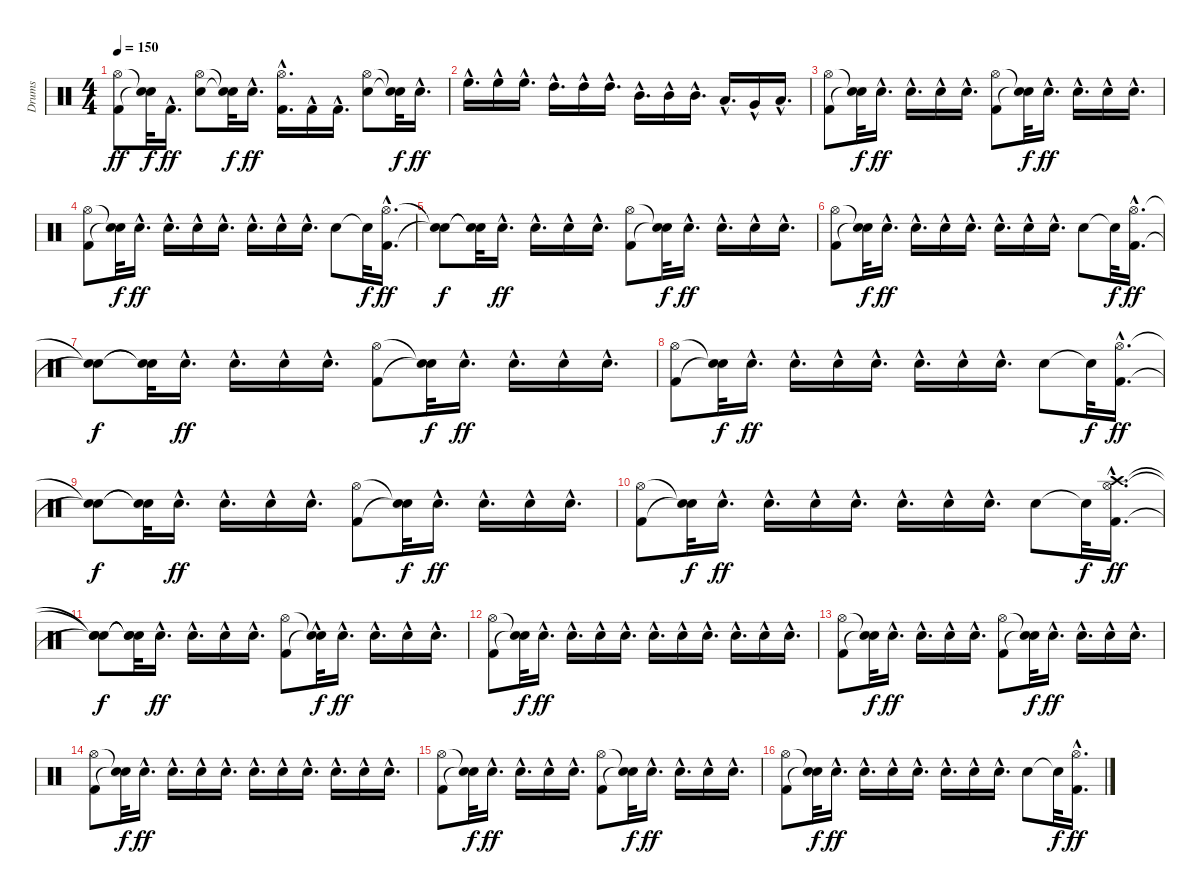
\track ("Drums" "Drums") {instrument percussion}
\staff {score}
\articulation defaults
\ts (4 4)
\tempo 150
\clef neutral
\ks c
("Kick (hit) 2" "Hi-Hat (open)").8{dy ff} ("Snare (hit)"{t} "Snare (hit)"{t}).32{dy f} "Kick (hit) 2"{hac}.16{d dy ff} ("Snare (hit) 2" "Hi-Hat (open)").8 ("Snare (hit)"{t} "Snare (hit)"{t}).32{dy f} "Snare (hit) 2"{hac}.16{d dy ff} ("Kick (hit) 2"{hac} "Hi-Hat (open)"{hac}).16{d} "Kick (hit) 2"{hac}.16 "Kick (hit) 2"{hac}.16{d} ("Snare (hit) 2" "Hi-Hat (open)").8 ("Snare (hit)"{t} "Snare (hit)"{t}).32{dy f} "Snare (hit) 2"{hac}.16{d dy ff} |
"High Floor Tom (hit)"{hac}.16{d} "High Floor Tom (hit)"{hac}.16 "High Floor Tom (hit)"{hac}.16{d} "High Tom (hit)"{hac}.16{d} "High Tom (hit)"{hac}.16 "High Tom (hit)"{hac}.16{d} "Mid Tom (hit)"{hac}.16{d} "Mid Tom (hit)"{hac}.16 "Mid Tom (hit)"{hac}.16{d} "Low Tom (hit)"{hac}.16{d} "Very Low Tom (hit)"{hac}.16 "Low Floor Tom (hit)"{hac}.16{d} |
("Kick (hit) 2" "Hi-Hat (open)").8 ("Snare (hit)"{t} "Snare (hit)"{t}).32{dy f} "Snare (hit) 2"{hac}.16{d dy ff} "Snare (hit) 2"{hac}.16{d} "Snare (hit) 2"{hac}.16 "Snare (hit) 2"{hac}.16{d} ("Kick (hit) 2" "Hi-Hat (open)").8 ("Snare (hit)"{t} "Snare (hit)"{t}).32{dy f} "Snare (hit) 2"{hac}.16{d dy ff} "Snare (hit) 2"{hac}.16{d} "Snare (hit) 2"{hac}.16 "Snare (hit) 2"{hac}.16{d} |
("Kick (hit) 2" "Hi-Hat (open)").8 ("Snare (hit)"{t} "Snare (hit)"{t}).32{dy f} "Snare (hit) 2"{hac}.16{d dy ff} "Snare (hit) 2"{hac}.16{d} "Snare (hit) 2"{hac}.16 "Snare (hit) 2"{hac}.16{d} "Snare (hit) 2"{hac}.16{d} "Snare (hit) 2"{hac}.16 "Snare (hit) 2"{hac}.16{d} "Snare (hit) 2".8 "Snare (hit)"{t}.32{dy f} ("Kick (hit) 2"{hac} "Hi-Hat (open)"{hac}).16{d dy ff} |
("Snare (hit)"{t} "Snare (hit)"{t}).8{dy f} ("Snare (hit)"{t} "Snare (hit)"{t}).32 "Snare (hit) 2"{hac}.16{d dy ff} "Snare (hit) 2"{hac}.16{d} "Snare (hit) 2"{hac}.16 "Snare (hit) 2"{hac}.16{d} ("Kick (hit) 2" "Hi-Hat (open)").8 ("Snare (hit)"{t} "Snare (hit)"{t}).32{dy f} "Snare (hit) 2"{hac}.16{d dy ff} "Snare (hit) 2"{hac}.16{d} "Snare (hit) 2"{hac}.16 "Snare (hit) 2"{hac}.16{d} |
("Kick (hit) 2" "Hi-Hat (open)").8 ("Snare (hit)"{t} "Snare (hit)"{t}).32{dy f} "Snare (hit) 2"{hac}.16{d dy ff} "Snare (hit) 2"{hac}.16{d} "Snare (hit) 2"{hac}.16 "Snare (hit) 2"{hac}.16{d} "Snare (hit) 2"{hac}.16{d} "Snare (hit) 2"{hac}.16 "Snare (hit) 2"{hac}.16{d} "Snare (hit) 2".8 "Snare (hit)"{t}.32{dy f} ("Kick (hit) 2"{hac} "Hi-Hat (open)"{hac}).16{d dy ff} |
("Snare (hit)"{t} "Snare (hit)"{t}).8{dy f} ("Snare (hit)"{t} "Snare (hit)"{t}).32 "Snare (hit) 2"{hac}.16{d dy ff} "Snare (hit) 2"{hac}.16{d} "Snare (hit) 2"{hac}.16 "Snare (hit) 2"{hac}.16{d} ("Kick (hit) 2" "Hi-Hat (open)").8 ("Snare (hit)"{t} "Snare (hit)"{t}).32{dy f} "Snare (hit) 2"{hac}.16{d dy ff} "Snare (hit) 2"{hac}.16{d} "Snare (hit) 2"{hac}.16 "Snare (hit) 2"{hac}.16{d} |
("Kick (hit) 2" "Hi-Hat (open)").8 ("Snare (hit)"{t} "Snare (hit)"{t}).32{dy f} "Snare (hit) 2"{hac}.16{d dy ff} "Snare (hit) 2"{hac}.16{d} "Snare (hit) 2"{hac}.16 "Snare (hit) 2"{hac}.16{d} "Snare (hit) 2"{hac}.16{d} "Snare (hit) 2"{hac}.16 "Snare (hit) 2"{hac}.16{d} "Snare (hit) 2".8 "Snare (hit)"{t}.32{dy f} ("Kick (hit) 2"{hac} "Hi-Hat (open)"{hac}).16{d dy ff} |
("Snare (hit)"{t} "Snare (hit)"{t}).8{dy f} ("Snare (hit)"{t} "Snare (hit)"{t}).32 "Snare (hit) 2"{hac}.16{d dy ff} "Snare (hit) 2"{hac}.16{d} "Snare (hit) 2"{hac}.16 "Snare (hit) 2"{hac}.16{d} ("Kick (hit) 2" "Hi-Hat (open)").8 ("Snare (hit)"{t} "Snare (hit)"{t}).32{dy f} "Snare (hit) 2"{hac}.16{d dy ff} "Snare (hit) 2"{hac}.16{d} "Snare (hit) 2"{hac}.16 "Snare (hit) 2"{hac}.16{d} |
("Kick (hit) 2" "Hi-Hat (open)").8 ("Snare (hit)"{t} "Snare (hit)"{t}).32{dy f} "Snare (hit) 2"{hac}.16{d dy ff} "Snare (hit) 2"{hac}.16{d} "Snare (hit) 2"{hac}.16 "Snare (hit) 2"{hac}.16{d} "Snare (hit) 2"{hac}.16{d} "Snare (hit) 2"{hac}.16 "Snare (hit) 2"{hac}.16{d} "Snare (hit) 2".8 "Snare (hit)"{t}.32{dy f} ("Kick (hit) 2"{hac} "Hi-Hat (open)"{hac} "Crash high (hit)"{hac}).16{d dy ff} |
("Snare (hit)"{t} "Snare (hit)"{t} "Snare (hit)"{t}).8{dy f} ("Snare (hit)"{t} "Snare (hit)"{t} "Snare (hit)"{t}).32 "Snare (hit) 2"{hac}.16{d dy ff} "Snare (hit) 2"{hac}.16{d} "Snare (hit) 2"{hac}.16 "Snare (hit) 2"{hac}.16{d} ("Kick (hit) 2" "Hi-Hat (open)").8 ("Snare (hit)"{hac t} "Snare (hit)"{hac t}).32{dy f} "Snare (hit) 2"{hac}.16{d dy ff} "Snare (hit) 2"{hac}.16{d} "Snare (hit) 2"{hac}.16 "Snare (hit) 2"{hac}.16{d} |
("Kick (hit) 2" "Hi-Hat (open)").8 ("Snare (hit)"{t} "Snare (hit)"{t}).32{dy f} "Snare (hit) 2"{hac}.16{d dy ff} "Snare (hit) 2"{hac}.16{d} "Snare (hit) 2"{hac}.16 "Snare (hit) 2"{hac}.16{d} "Snare (hit) 2"{hac}.16{d} "Snare (hit) 2"{hac}.16 "Snare (hit) 2"{hac}.16{d} "Snare (hit) 2"{hac}.16{d} "Snare (hit) 2"{hac}.16 "Snare (hit) 2"{hac}.16{d} |
("Kick (hit) 2" "Hi-Hat (open)").8 ("Snare (hit)"{t} "Snare (hit)"{t}).32{dy f} "Snare (hit) 2"{hac}.16{d dy ff} "Snare (hit) 2"{hac}.16{d} "Snare (hit) 2"{hac}.16 "Snare (hit) 2"{hac}.16{d} ("Kick (hit) 2" "Hi-Hat (open)").8 ("Snare (hit)"{t} "Snare (hit)"{t}).32{dy f} "Snare (hit) 2"{hac}.16{d dy ff} "Snare (hit) 2"{hac}.16{d} "Snare (hit) 2"{hac}.16 "Snare (hit) 2"{hac}.16{d} |
("Kick (hit) 2" "Hi-Hat (open)").8 ("Snare (hit)"{t} "Snare (hit)"{t}).32{dy f} "Snare (hit) 2"{hac}.16{d dy ff} "Snare (hit) 2"{hac}.16{d} "Snare (hit) 2"{hac}.16 "Snare (hit) 2"{hac}.16{d} "Snare (hit) 2"{hac}.16{d} "Snare (hit) 2"{hac}.16 "Snare (hit) 2"{hac}.16{d} "Snare (hit) 2"{hac}.16{d} "Snare (hit) 2"{hac}.16 "Snare (hit) 2"{hac}.16{d} |
("Kick (hit) 2" "Hi-Hat (open)").8 ("Snare (hit)"{t} "Snare (hit)"{t}).32{dy f} "Snare (hit) 2"{hac}.16{d dy ff} "Snare (hit) 2"{hac}.16{d} "Snare (hit) 2"{hac}.16 "Snare (hit) 2"{hac}.16{d} ("Kick (hit) 2" "Hi-Hat (open)").8 ("Snare (hit)"{t} "Snare (hit)"{t}).32{dy f} "Snare (hit) 2"{hac}.16{d dy ff} "Snare (hit) 2"{hac}.16{d} "Snare (hit) 2"{hac}.16 "Snare (hit) 2"{hac}.16{d} |
("Kick (hit) 2" "Hi-Hat (open)").8 ("Snare (hit)"{t} "Snare (hit)"{t}).32{dy f} "Snare (hit) 2"{hac}.16{d dy ff} "Snare (hit) 2"{hac}.16{d} "Snare (hit) 2"{hac}.16 "Snare (hit) 2"{hac}.16{d} "Snare (hit) 2"{hac}.16{d} "Snare (hit) 2"{hac}.16 "Snare (hit) 2"{hac}.16{d} "Snare (hit) 2".8 "Snare (hit)"{t}.32{dy f} ("Kick (hit) 2"{hac} "Hi-Hat (open)"{hac}).16{d dy ff}
